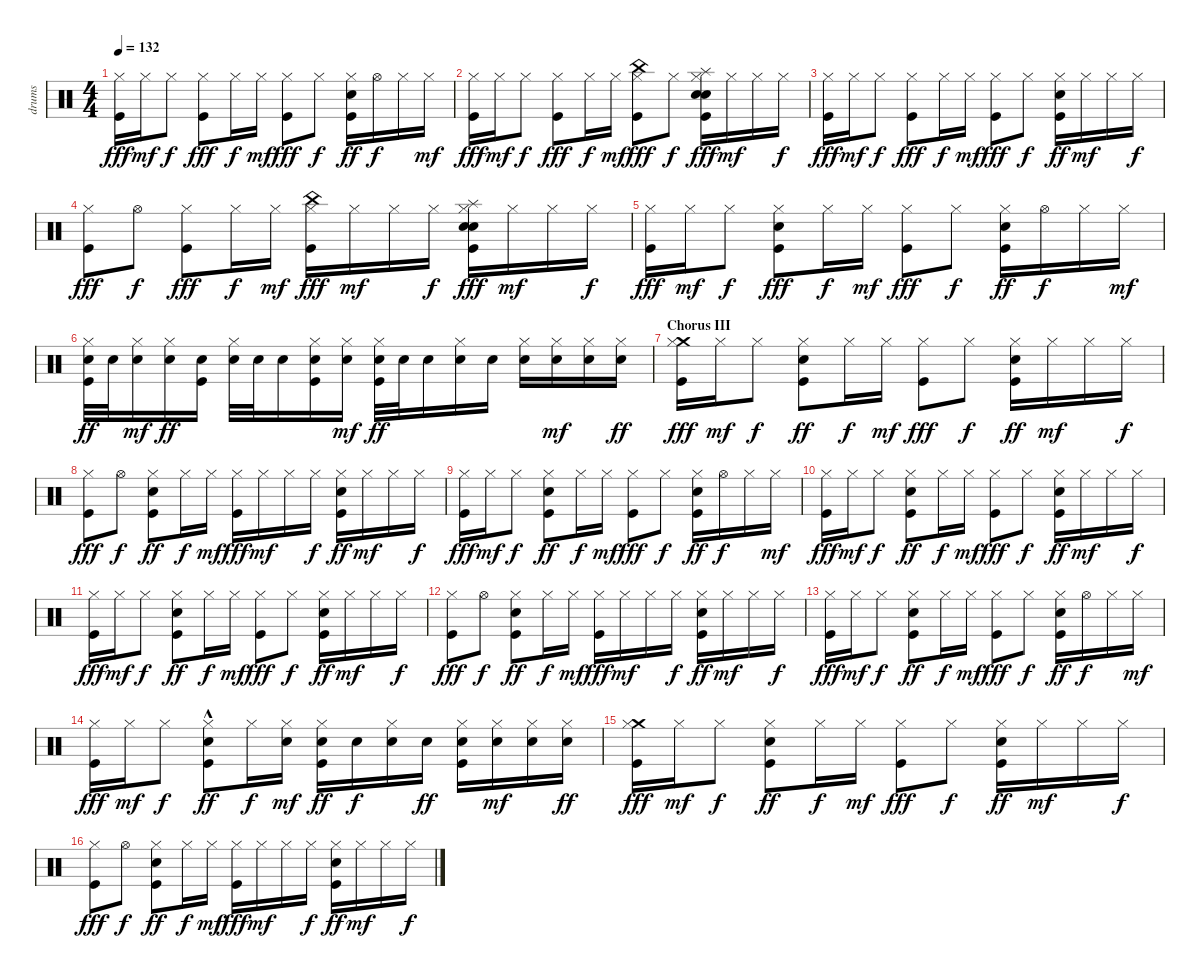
\track ("drums" "drums") {instrument percussion}
\staff {score}
\articulation defaults
\ts (4 4)
\tempo 132
\clef neutral
\ks c
("Kick (hit)" "Hi-Hat (closed)").16{dy fff} "Hi-Hat (closed)".16{dy mf} "Hi-Hat (closed)".8{dy f} ("Kick (hit)" "Hi-Hat (closed)").8{dy fff} "Hi-Hat (closed)".16{dy f} "Hi-Hat (closed)".16{dy mf} ("Kick (hit)" "Hi-Hat (closed)").8{dy fff} "Hi-Hat (closed)".8{dy f} ("Kick (hit)" "Electric Snare (hit)" "Hi-Hat (closed)").16{dy ff} "Hi-Hat (open)".16{dy f} "Hi-Hat (closed)".16 "Hi-Hat (closed)".16{dy mf} |
("Kick (hit)" "Hi-Hat (closed)").16{dy fff} "Hi-Hat (closed)".16{dy mf} "Hi-Hat (closed)".8{dy f} ("Kick (hit)" "Hi-Hat (closed)").8{dy fff} "Hi-Hat (closed)".16{dy f} "Hi-Hat (closed)".16{dy mf} ("Kick (hit)" "Hi-Hat (closed)" "China (hit)").8{dy fff} "Hi-Hat (closed)".8{dy f} ("Kick (hit)" "Electric Snare (hit)" "Hi-Hat (closed)" "Splash (hit)" "Hand Clap (hit)").16{dy fff} "Hi-Hat (closed)".16{dy mf} "Hi-Hat (closed)".16 "Hi-Hat (closed)".16{dy f} |
("Kick (hit)" "Hi-Hat (closed)").16{dy fff} "Hi-Hat (closed)".16{dy mf} "Hi-Hat (closed)".8{dy f} ("Kick (hit)" "Hi-Hat (closed)").8{dy fff} "Hi-Hat (closed)".16{dy f} "Hi-Hat (closed)".16{dy mf} ("Kick (hit)" "Hi-Hat (closed)").8{dy fff} "Hi-Hat (closed)".8{dy f} ("Kick (hit)" "Electric Snare (hit)" "Hi-Hat (closed)").16{dy ff} "Hi-Hat (closed)".16{dy mf} "Hi-Hat (closed)".16 "Hi-Hat (closed)".16{dy f} |
("Kick (hit)" "Hi-Hat (closed)").8{dy fff} "Hi-Hat (open)".8{dy f} ("Kick (hit)" "Hi-Hat (closed)").8{dy fff} "Hi-Hat (closed)".16{dy f} "Hi-Hat (closed)".16{dy mf} ("Kick (hit)" "Hi-Hat (closed)" "China (hit)").16{dy fff} "Hi-Hat (closed)".16{dy mf} "Hi-Hat (closed)".16 "Hi-Hat (closed)".16{dy f} ("Kick (hit)" "Electric Snare (hit)" "Hi-Hat (closed)" "Splash (hit)" "Hand Clap (hit)").16{dy fff} "Hi-Hat (closed)".16{dy mf} "Hi-Hat (closed)".16 "Hi-Hat (closed)".16{dy f} |
("Kick (hit)" "Hi-Hat (closed)").16{dy fff} "Hi-Hat (closed)".16{dy mf} "Hi-Hat (closed)".8{dy f} ("Kick (hit)" "Electric Snare (hit)" "Hi-Hat (closed)").8{dy fff} "Hi-Hat (closed)".16{dy f} "Hi-Hat (closed)".16{dy mf} ("Kick (hit)" "Hi-Hat (closed)").8{dy fff} "Hi-Hat (closed)".8{dy f} ("Kick (hit)" "Electric Snare (hit)" "Hi-Hat (closed)").16{dy ff} "Hi-Hat (open)".16{dy f} "Hi-Hat (closed)".16 "Hi-Hat (closed)".16{dy mf} |
("Kick (hit)" "Electric Snare (hit)" "Hi-Hat (closed)").32{dy ff} "Electric Snare (hit)".32 ("Electric Snare (hit)" "Hi-Hat (closed)").16{dy mf} ("Electric Snare (hit)" "Hi-Hat (closed)").16{dy ff} ("Kick (hit)" "Electric Snare (hit)").16 ("Electric Snare (hit)" "Hi-Hat (closed)").32 "Electric Snare (hit)".32 "Electric Snare (hit)".16 ("Kick (hit)" "Electric Snare (hit)" "Hi-Hat (closed)").16 ("Electric Snare (hit)" "Hi-Hat (closed)").16{dy mf} ("Kick (hit)" "Electric Snare (hit)" "Hi-Hat (closed)").32{dy ff} "Electric Snare (hit)".32 "Electric Snare (hit)".16 ("Electric Snare (hit)" "Hi-Hat (closed)").16 "Electric Snare (hit)".16 ("Electric Snare (hit)" "Hi-Hat (closed)").16 ("Electric Snare (hit)" "Hi-Hat (closed)").16{dy mf} ("Electric Snare (hit)" "Hi-Hat (closed)").16 ("Electric Snare (hit)" "Hi-Hat (closed)").16{dy ff} |
\section ("" "Chorus III")
("Kick (hit)" "Crash medium (hit)" "Hi-Hat (closed)").16{dy fff} "Hi-Hat (closed)".16{dy mf} "Hi-Hat (closed)".8{dy f} ("Kick (hit)" "Electric Snare (hit)" "Hi-Hat (closed)").8{dy ff} "Hi-Hat (closed)".16{dy f} "Hi-Hat (closed)".16{dy mf} ("Kick (hit)" "Hi-Hat (closed)").8{dy fff} "Hi-Hat (closed)".8{dy f} ("Kick (hit)" "Electric Snare (hit)" "Hi-Hat (closed)").16{dy ff} "Hi-Hat (closed)".16{dy mf} "Hi-Hat (closed)".16 "Hi-Hat (closed)".16{dy f} |
("Kick (hit)" "Hi-Hat (closed)").8{dy fff} "Hi-Hat (open)".8{dy f} ("Kick (hit)" "Electric Snare (hit)" "Hi-Hat (closed)").8{dy ff} "Hi-Hat (closed)".16{dy f} "Hi-Hat (closed)".16{dy mf} ("Kick (hit)" "Hi-Hat (closed)").16{dy fff} "Hi-Hat (closed)".16{dy mf} "Hi-Hat (closed)".16 "Hi-Hat (closed)".16{dy f} ("Kick (hit)" "Electric Snare (hit)" "Hi-Hat (closed)").16{dy ff} "Hi-Hat (closed)".16{dy mf} "Hi-Hat (closed)".16 "Hi-Hat (closed)".16{dy f} |
("Kick (hit)" "Hi-Hat (closed)").16{dy fff} "Hi-Hat (closed)".16{dy mf} "Hi-Hat (closed)".8{dy f} ("Kick (hit)" "Electric Snare (hit)" "Hi-Hat (closed)").8{dy ff} "Hi-Hat (closed)".16{dy f} "Hi-Hat (closed)".16{dy mf} ("Kick (hit)" "Hi-Hat (closed)").8{dy fff} "Hi-Hat (closed)".8{dy f} ("Kick (hit)" "Electric Snare (hit)" "Hi-Hat (closed)").16{dy ff} "Hi-Hat (open)".16{dy f} "Hi-Hat (closed)".16 "Hi-Hat (closed)".16{dy mf} |
("Kick (hit)" "Hi-Hat (closed)").16{dy fff} "Hi-Hat (closed)".16{dy mf} "Hi-Hat (closed)".8{dy f} ("Kick (hit)" "Electric Snare (hit)" "Hi-Hat (closed)").8{dy ff} "Hi-Hat (closed)".16{dy f} "Hi-Hat (closed)".16{dy mf} ("Kick (hit)" "Hi-Hat (closed)").8{dy fff} "Hi-Hat (closed)".8{dy f} ("Kick (hit)" "Electric Snare (hit)" "Hi-Hat (closed)").16{dy ff} "Hi-Hat (closed)".16{dy mf} "Hi-Hat (closed)".16 "Hi-Hat (closed)".16{dy f} |
("Kick (hit)" "Hi-Hat (closed)").16{dy fff} "Hi-Hat (closed)".16{dy mf} "Hi-Hat (closed)".8{dy f} ("Kick (hit)" "Electric Snare (hit)" "Hi-Hat (closed)").8{dy ff} "Hi-Hat (closed)".16{dy f} "Hi-Hat (closed)".16{dy mf} ("Kick (hit)" "Hi-Hat (closed)").8{dy fff} "Hi-Hat (closed)".8{dy f} ("Kick (hit)" "Electric Snare (hit)" "Hi-Hat (closed)").16{dy ff} "Hi-Hat (closed)".16{dy mf} "Hi-Hat (closed)".16 "Hi-Hat (closed)".16{dy f} |
("Kick (hit)" "Hi-Hat (closed)").8{dy fff} "Hi-Hat (open)".8{dy f} ("Kick (hit)" "Electric Snare (hit)" "Hi-Hat (closed)").8{dy ff} "Hi-Hat (closed)".16{dy f} "Hi-Hat (closed)".16{dy mf} ("Kick (hit)" "Hi-Hat (closed)").16{dy fff} "Hi-Hat (closed)".16{dy mf} "Hi-Hat (closed)".16 "Hi-Hat (closed)".16{dy f} ("Kick (hit)" "Electric Snare (hit)" "Hi-Hat (closed)").16{dy ff} "Hi-Hat (closed)".16{dy mf} "Hi-Hat (closed)".16 "Hi-Hat (closed)".16{dy f} |
("Kick (hit)" "Hi-Hat (closed)").16{dy fff} "Hi-Hat (closed)".16{dy mf} "Hi-Hat (closed)".8{dy f} ("Kick (hit)" "Electric Snare (hit)" "Hi-Hat (closed)").8{dy ff} "Hi-Hat (closed)".16{dy f} "Hi-Hat (closed)".16{dy mf} ("Kick (hit)" "Hi-Hat (closed)").8{dy fff} "Hi-Hat (closed)".8{dy f} ("Kick (hit)" "Electric Snare (hit)" "Hi-Hat (closed)").16{dy ff} "Hi-Hat (open)".16{dy f} "Hi-Hat (closed)".16 "Hi-Hat (closed)".16{dy mf} |
("Kick (hit)" "Hi-Hat (closed)").16{dy fff} "Hi-Hat (closed)".16{dy mf} "Hi-Hat (closed)".8{dy f} ("Kick (hit)"{hac} "Electric Snare (hit)"{hac} "Hi-Hat (closed)").8{dy ff} "Hi-Hat (closed)".16{dy f} ("Electric Snare (hit)" "Hi-Hat (closed)").16{dy mf} ("Kick (hit)" "Electric Snare (hit)" "Hi-Hat (closed)").16{dy ff} "Electric Snare (hit)".16{dy f} ("Electric Snare (hit)" "Hi-Hat (closed)").16 "Electric Snare (hit)".16{dy ff} ("Kick (hit)" "Electric Snare (hit)" "Hi-Hat (closed)").16 ("Electric Snare (hit)" "Hi-Hat (closed)").16{dy mf} ("Electric Snare (hit)" "Hi-Hat (closed)").16 ("Electric Snare (hit)" "Hi-Hat (closed)").16{dy ff} |
("Kick (hit)" "Crash medium (hit)" "Hi-Hat (closed)").16{dy fff} "Hi-Hat (closed)".16{dy mf} "Hi-Hat (closed)".8{dy f} ("Kick (hit)" "Electric Snare (hit)" "Hi-Hat (closed)").8{dy ff} "Hi-Hat (closed)".16{dy f} "Hi-Hat (closed)".16{dy mf} ("Kick (hit)" "Hi-Hat (closed)").8{dy fff} "Hi-Hat (closed)".8{dy f} ("Kick (hit)" "Electric Snare (hit)" "Hi-Hat (closed)").16{dy ff} "Hi-Hat (closed)".16{dy mf} "Hi-Hat (closed)".16 "Hi-Hat (closed)".16{dy f} |
("Kick (hit)" "Hi-Hat (closed)").8{dy fff} "Hi-Hat (open)".8{dy f} ("Kick (hit)" "Electric Snare (hit)" "Hi-Hat (closed)").8{dy ff} "Hi-Hat (closed)".16{dy f} "Hi-Hat (closed)".16{dy mf} ("Kick (hit)" "Hi-Hat (closed)").16{dy fff} "Hi-Hat (closed)".16{dy mf} "Hi-Hat (closed)".16 "Hi-Hat (closed)".16{dy f} ("Kick (hit)" "Electric Snare (hit)" "Hi-Hat (closed)").16{dy ff} "Hi-Hat (closed)".16{dy mf} "Hi-Hat (closed)".16 "Hi-Hat (closed)".16{dy f}
